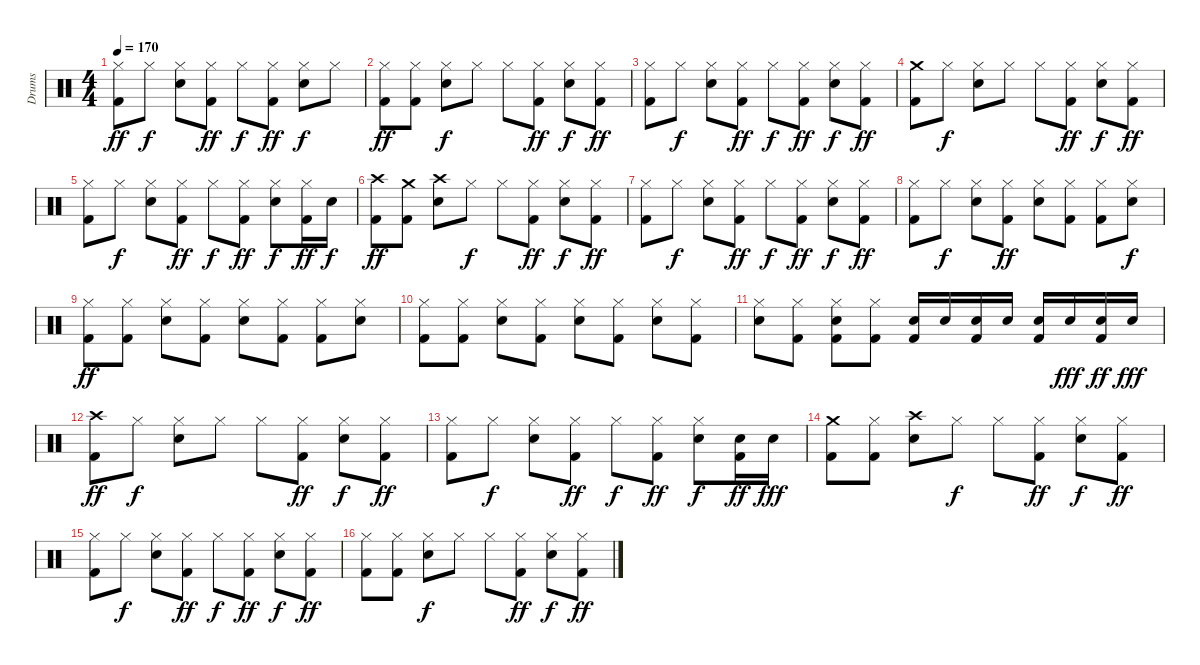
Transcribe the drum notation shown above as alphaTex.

\track ("Drums" "Drums") {instrument percussion}
\staff {score}
\articulation defaults
\ts (4 4)
\tempo 170
\clef neutral
\ks c
("Kick (hit) 2" "Hi-Hat (closed)").8{dy ff} "Hi-Hat (closed)".8{dy f} ("Snare (hit) 2" "Hi-Hat (closed)").8 ("Kick (hit) 2" "Hi-Hat (closed)").8{dy ff} "Hi-Hat (closed)".8{dy f} ("Kick (hit) 2" "Hi-Hat (closed)").8{dy ff} ("Snare (hit) 2" "Hi-Hat (closed)").8{dy f} "Hi-Hat (closed)".8 |
("Hi-Hat (closed)" "Kick (hit) 2").8{dy ff} ("Hi-Hat (closed)" "Kick (hit) 2").8 ("Snare (hit) 2" "Hi-Hat (closed)").8{dy f} "Hi-Hat (closed)".8 "Hi-Hat (closed)".8 ("Hi-Hat (closed)" "Kick (hit) 2").8{dy ff} ("Snare (hit) 2" "Hi-Hat (closed)").8{dy f} ("Hi-Hat (closed)" "Kick (hit) 2").8{dy ff} |
("Kick (hit) 2" "Hi-Hat (closed)").8 "Hi-Hat (closed)".8{dy f} ("Hi-Hat (closed)" "Snare (hit) 2").8 ("Kick (hit) 2" "Hi-Hat (closed)").8{dy ff} "Hi-Hat (closed)".8{dy f} ("Kick (hit) 2" "Hi-Hat (closed)").8{dy ff} ("Hi-Hat (closed)" "Snare (hit) 2").8{dy f} ("Kick (hit) 2" "Hi-Hat (closed)").8{dy ff} |
("Crash medium (hit)" "Kick (hit) 2").8 "Hi-Hat (closed)".8{dy f} ("Hi-Hat (closed)" "Snare (hit) 2").8 "Hi-Hat (closed)".8 "Hi-Hat (closed)".8 ("Kick (hit) 2" "Hi-Hat (closed)").8{dy ff} ("Hi-Hat (closed)" "Snare (hit) 2").8{dy f} ("Kick (hit) 2" "Hi-Hat (closed)").8{dy ff} |
("Kick (hit) 2" "Hi-Hat (closed)").8 "Hi-Hat (closed)".8{dy f} ("Hi-Hat (closed)" "Snare (hit) 2").8 ("Kick (hit) 2" "Hi-Hat (closed)").8{dy ff} "Hi-Hat (closed)".8{dy f} ("Kick (hit) 2" "Hi-Hat (closed)").8{dy ff} ("Hi-Hat (closed)" "Snare (hit) 2").8{dy f} ("Kick (hit) 2" "Hi-Hat (closed)").16{dy ff} "Snare (hit) 2".16{dy f} |
("Kick (hit) 2" "Crash high (hit)").8{dy ff} ("Kick (hit) 2" "Crash medium (hit)").8 ("Snare (hit) 2" "Crash high (hit)").8 "Hi-Hat (closed)".8{dy f} "Hi-Hat (closed)".8 ("Hi-Hat (closed)" "Kick (hit) 2").8{dy ff} ("Hi-Hat (closed)" "Snare (hit) 2").8{dy f} ("Hi-Hat (closed)" "Kick (hit) 2").8{dy ff} |
("Kick (hit) 2" "Hi-Hat (closed)").8 "Hi-Hat (closed)".8{dy f} ("Hi-Hat (closed)" "Snare (hit) 2").8 ("Kick (hit) 2" "Hi-Hat (closed)").8{dy ff} "Hi-Hat (closed)".8{dy f} ("Kick (hit) 2" "Hi-Hat (closed)").8{dy ff} ("Hi-Hat (closed)" "Snare (hit) 2").8{dy f} ("Kick (hit) 2" "Hi-Hat (closed)").8{dy ff} |
("Kick (hit) 2" "Hi-Hat (closed)").8 "Hi-Hat (closed)".8{dy f} ("Hi-Hat (closed)" "Snare (hit) 2").8 ("Kick (hit) 2" "Hi-Hat (closed)").8{dy ff} ("Snare (hit) 2" "Hi-Hat (closed)").8 ("Kick (hit) 2" "Hi-Hat (closed)").8 ("Kick (hit) 2" "Hi-Hat (closed)").8 ("Snare (hit) 2" "Hi-Hat (closed)").8{dy f} |
("Hi-Hat (closed)" "Kick (hit) 2").8{dy ff} ("Hi-Hat (closed)" "Kick (hit) 2").8 ("Hi-Hat (closed)" "Snare (hit) 2").8 ("Hi-Hat (closed)" "Kick (hit) 2").8 ("Hi-Hat (closed)" "Snare (hit) 2").8 ("Hi-Hat (closed)" "Kick (hit) 2").8 ("Hi-Hat (closed)" "Kick (hit) 2").8 ("Hi-Hat (closed)" "Snare (hit) 2").8 |
("Hi-Hat (closed)" "Kick (hit) 2").8 ("Hi-Hat (closed)" "Kick (hit) 2").8 ("Hi-Hat (closed)" "Snare (hit) 2").8 ("Hi-Hat (closed)" "Kick (hit) 2").8 ("Hi-Hat (closed)" "Snare (hit) 2").8 ("Hi-Hat (closed)" "Kick (hit) 2").8 ("Hi-Hat (closed)" "Snare (hit) 2").8 ("Hi-Hat (closed)" "Kick (hit) 2").8 |
("Hi-Hat (closed)" "Snare (hit) 2").8 ("Hi-Hat (closed)" "Kick (hit) 2").8 ("Hi-Hat (closed)" "Kick (hit) 2" "Snare (hit) 2").8 ("Hi-Hat (closed)" "Kick (hit) 2").8 ("Snare (hit) 2" "Kick (hit) 2").16 "Snare (hit) 2".16 ("Snare (hit) 2" "Kick (hit) 2").16 "Snare (hit) 2".16 ("Snare (hit) 2" "Kick (hit) 2").16 "Snare (hit) 2".16{dy fff} ("Snare (hit) 2" "Kick (hit) 2").16{dy ff} "Snare (hit) 2".16{dy fff} |
("Crash high (hit)" "Kick (hit) 2").8{dy ff} "Hi-Hat (closed)".8{dy f} ("Hi-Hat (closed)" "Snare (hit) 2").8 "Hi-Hat (closed)".8 "Hi-Hat (closed)".8 ("Kick (hit) 2" "Hi-Hat (closed)").8{dy ff} ("Hi-Hat (closed)" "Snare (hit) 2").8{dy f} ("Kick (hit) 2" "Hi-Hat (closed)").8{dy ff} |
("Kick (hit) 2" "Hi-Hat (closed)").8 "Hi-Hat (closed)".8{dy f} ("Hi-Hat (closed)" "Snare (hit) 2").8 ("Kick (hit) 2" "Hi-Hat (closed)").8{dy ff} "Hi-Hat (closed)".8{dy f} ("Kick (hit) 2" "Hi-Hat (closed)").8{dy ff} ("Hi-Hat (closed)" "Snare (hit) 2").8{dy f} ("Snare (hit) 2" "Kick (hit) 2").16{dy ff} "Snare (hit) 2".16{dy fff} |
("Crash medium (hit)" "Kick (hit) 2").8 ("Hi-Hat (closed)" "Kick (hit) 2").8 ("Snare (hit) 2" "Crash high (hit)").8 "Hi-Hat (closed)".8{dy f} "Hi-Hat (closed)".8 ("Hi-Hat (closed)" "Kick (hit) 2").8{dy ff} ("Hi-Hat (closed)" "Snare (hit) 2").8{dy f} ("Hi-Hat (closed)" "Kick (hit) 2").8{dy ff} |
("Kick (hit) 2" "Hi-Hat (closed)").8 "Hi-Hat (closed)".8{dy f} ("Hi-Hat (closed)" "Snare (hit) 2").8 ("Kick (hit) 2" "Hi-Hat (closed)").8{dy ff} "Hi-Hat (closed)".8{dy f} ("Kick (hit) 2" "Hi-Hat (closed)").8{dy ff} ("Hi-Hat (closed)" "Snare (hit) 2").8{dy f} ("Kick (hit) 2" "Hi-Hat (closed)").8{dy ff} |
("Kick (hit) 2" "Hi-Hat (closed)").8 ("Kick (hit) 2" "Hi-Hat (closed)").8 ("Hi-Hat (closed)" "Snare (hit) 2").8{dy f} "Hi-Hat (closed)".8 "Hi-Hat (closed)".8 ("Kick (hit) 2" "Hi-Hat (closed)").8{dy ff} ("Hi-Hat (closed)" "Snare (hit) 2").8{dy f} ("Kick (hit) 2" "Hi-Hat (closed)").8{dy ff}
